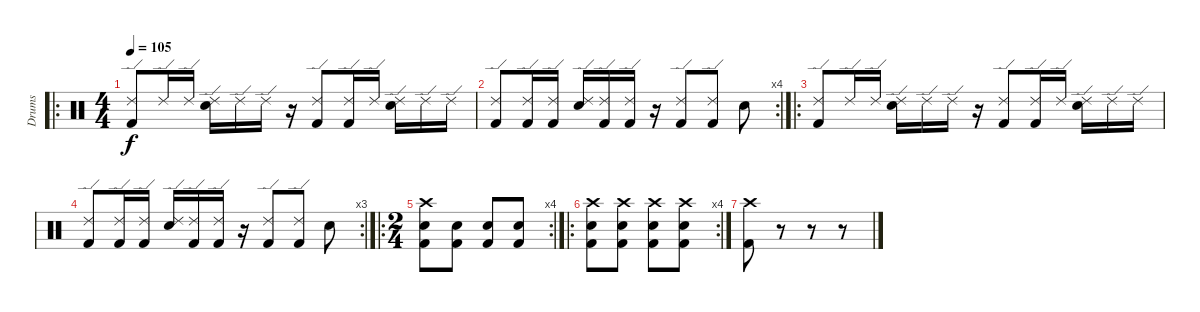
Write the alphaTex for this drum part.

\track ("Drums" "Drums") {instrument percussion}
\staff {score}
\articulation defaults
\ro
\ts (4 4)
\tempo 105
\clef neutral
\ks c
("Kick (hit) 2" "Ride (edge) 2").8{dy f} "Ride (edge) 2".16 "Ride (edge) 2".16 ("Electric Snare (hit)" "Ride (edge) 2").16 "Ride (edge) 2".16 "Ride (edge) 2".16 r.16 ("Kick (hit) 2" "Ride (edge) 2").8 ("Kick (hit) 2" "Ride (edge) 2").16 "Ride (edge) 2".16 ("Electric Snare (hit)" "Ride (edge) 2").16 "Ride (edge) 2".16 "Ride (edge) 2".16 |
\rc 4
("Kick (hit) 2" "Ride (edge) 2").8 ("Kick (hit) 2" "Ride (edge) 2").16 ("Kick (hit) 2" "Ride (edge) 2").16 ("Electric Snare (hit)" "Ride (edge) 2").16 ("Kick (hit) 2" "Ride (edge) 2").16 ("Kick (hit) 2" "Ride (edge) 2").16 r.16 ("Ride (edge) 2" "Kick (hit) 2").8 ("Ride (edge) 2" "Kick (hit) 2").8 "Electric Snare (hit)".8 |
\ro
("Kick (hit) 2" "Ride (edge) 2").8 "Ride (edge) 2".16 "Ride (edge) 2".16 ("Electric Snare (hit)" "Ride (edge) 2").16 "Ride (edge) 2".16 "Ride (edge) 2".16 r.16 ("Kick (hit) 2" "Ride (edge) 2").8 ("Kick (hit) 2" "Ride (edge) 2").16 "Ride (edge) 2".16 ("Electric Snare (hit)" "Ride (edge) 2").16 "Ride (edge) 2".16 "Ride (edge) 2".16 |
\rc 3
("Kick (hit) 2" "Ride (edge) 2").8 ("Kick (hit) 2" "Ride (edge) 2").16 ("Kick (hit) 2" "Ride (edge) 2").16 ("Electric Snare (hit)" "Ride (edge) 2").16 ("Kick (hit) 2" "Ride (edge) 2").16 ("Kick (hit) 2" "Ride (edge) 2").16 r.16 ("Ride (edge) 2" "Kick (hit) 2").8 ("Ride (edge) 2" "Kick (hit) 2").8 "Electric Snare (hit)".8 |
\ro
\rc 4
\ts (2 4)
("Kick (hit) 2" "Electric Snare (hit)" "Crash high (hit)").8 ("Electric Snare (hit)" "Kick (hit) 2").8 ("Electric Snare (hit)" "Kick (hit) 2").8 ("Electric Snare (hit)" "Kick (hit) 2").8 |
\ro
\rc 4
("Electric Snare (hit)" "Kick (hit) 2" "Crash high (hit)").8 ("Electric Snare (hit)" "Kick (hit) 2" "Crash high (hit)").8 ("Electric Snare (hit)" "Kick (hit) 2" "Crash high (hit)").8 ("Electric Snare (hit)" "Kick (hit) 2" "Crash high (hit)").8 |
("Kick (hit) 2" "Crash high (hit)").8 r.8 r.8 r.8
